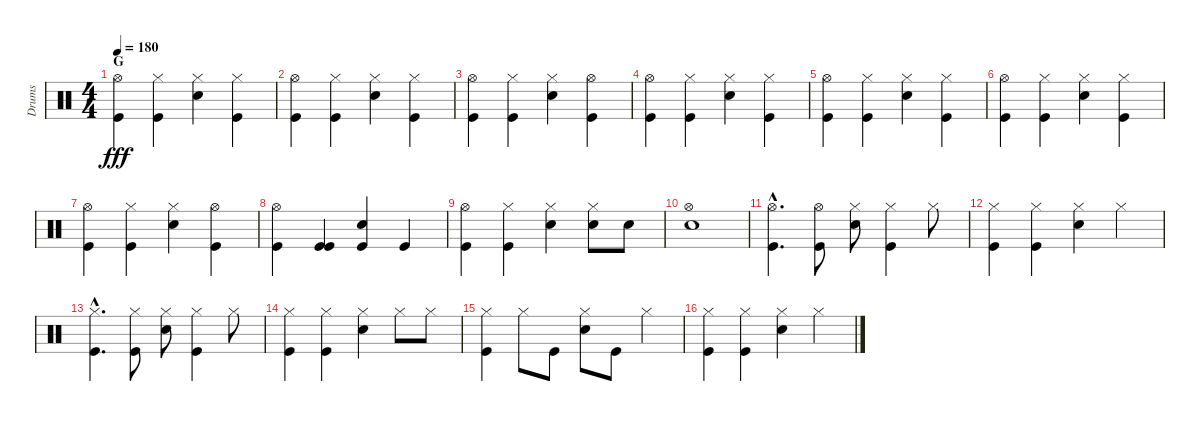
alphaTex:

\track ("Drums" "Drums") {instrument percussion}
\staff {score}
\articulation defaults
\ts (4 4)
\section ("" "G")
\tempo 180
\clef neutral
\ks c
("Hi-Hat (open)" "Kick (hit)").4{dy fff} ("Hi-Hat (closed)" "Kick (hit)").4 ("Hi-Hat (closed)" "Snare (hit) 2").4 ("Hi-Hat (closed)" "Kick (hit)").4 |
("Hi-Hat (open)" "Kick (hit)").4 ("Hi-Hat (closed)" "Kick (hit)").4 ("Hi-Hat (closed)" "Snare (hit) 2").4 ("Hi-Hat (closed)" "Kick (hit)").4 |
("Hi-Hat (open)" "Kick (hit)").4 ("Hi-Hat (closed)" "Kick (hit)").4 ("Hi-Hat (closed)" "Snare (hit) 2").4 ("Hi-Hat (open)" "Kick (hit)").4 |
("Hi-Hat (open)" "Kick (hit)").4 ("Hi-Hat (closed)" "Kick (hit)").4 ("Hi-Hat (closed)" "Snare (hit) 2").4 ("Hi-Hat (closed)" "Kick (hit)").4 |
("Hi-Hat (open)" "Kick (hit)").4 ("Hi-Hat (closed)" "Kick (hit)").4 ("Hi-Hat (closed)" "Snare (hit) 2").4 ("Hi-Hat (closed)" "Kick (hit)").4 |
("Hi-Hat (open)" "Kick (hit)").4 ("Hi-Hat (closed)" "Kick (hit)").4 ("Hi-Hat (closed)" "Snare (hit) 2").4 ("Hi-Hat (closed)" "Kick (hit)").4 |
("Hi-Hat (open)" "Kick (hit)").4 ("Hi-Hat (closed)" "Kick (hit)").4 ("Hi-Hat (closed)" "Snare (hit) 2").4 ("Hi-Hat (open)" "Kick (hit)").4 |
("Hi-Hat (open)" "Kick (hit)").4 ("Kick (hit)" "Kick (hit)").4 ("Snare (hit) 2" "Kick (hit)").4 "Kick (hit)".4 |
("Hi-Hat (open)" "Kick (hit)").4 ("Hi-Hat (closed)" "Kick (hit)").4 ("Hi-Hat (closed)" "Snare (hit) 2").4 ("Hi-Hat (closed)" "Snare (hit) 2").8 "Snare (hit) 2".8 |
("Hi-Hat (open)" "Snare (hit) 2").1 |
("Hi-Hat (open)"{hac} "Kick (hit)"{hac}).4{d} ("Hi-Hat (open)" "Kick (hit)").8 ("Hi-Hat (closed)" "Snare (hit) 2").8 ("Hi-Hat (closed)" "Kick (hit)").4 "Hi-Hat (closed)".8 |
("Hi-Hat (closed)" "Kick (hit)").4 ("Hi-Hat (closed)" "Kick (hit)").4 ("Hi-Hat (closed)" "Snare (hit) 2").4 "Hi-Hat (closed)".4 |
("Hi-Hat (closed)"{hac} "Kick (hit)"{hac}).4{d} ("Hi-Hat (closed)" "Kick (hit)").8 ("Hi-Hat (closed)" "Snare (hit) 2").8 ("Hi-Hat (closed)" "Kick (hit)").4 "Hi-Hat (closed)".8 |
("Hi-Hat (closed)" "Kick (hit)").4 ("Hi-Hat (closed)" "Kick (hit)").4 ("Hi-Hat (closed)" "Snare (hit) 2").4 "Hi-Hat (closed)".8 "Hi-Hat (closed)".8 |
("Hi-Hat (closed)" "Kick (hit)").4 "Hi-Hat (closed)".8 "Kick (hit)".8 ("Hi-Hat (closed)" "Snare (hit) 2").8 "Kick (hit)".8 "Hi-Hat (closed)".4 |
("Hi-Hat (closed)" "Kick (hit)").4 ("Hi-Hat (closed)" "Kick (hit)").4 ("Hi-Hat (closed)" "Snare (hit) 2").4 "Hi-Hat (closed)".4
